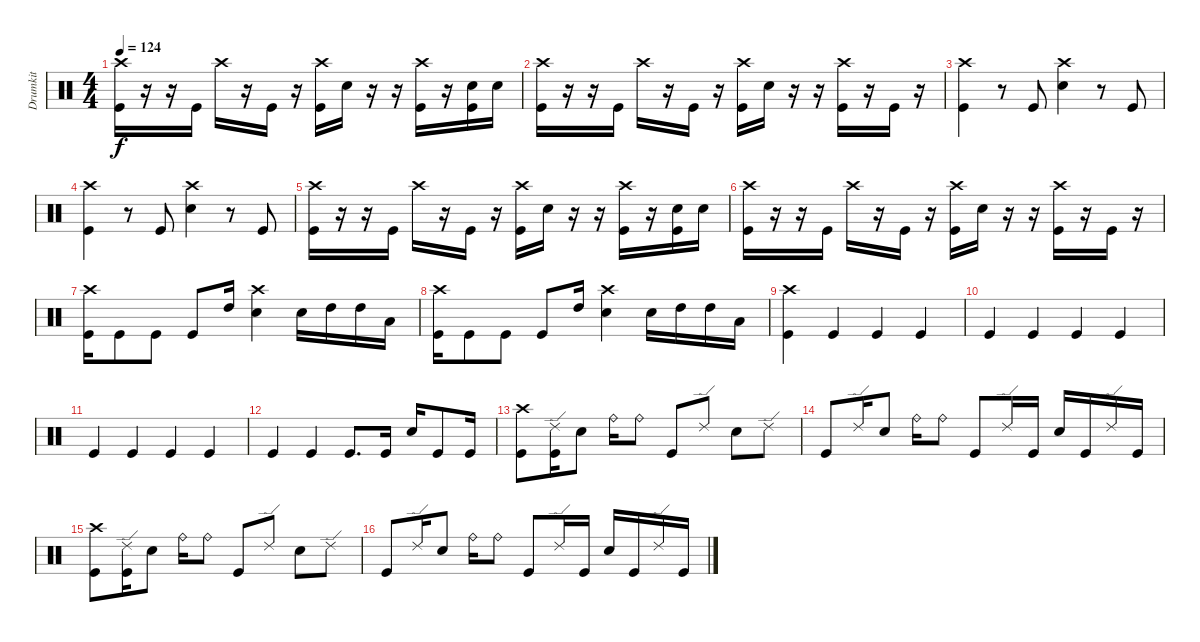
\track ("Drumkit" "Drumkit") {instrument percussion}
\staff {score}
\articulation defaults
\ts (4 4)
\tempo 124
\clef neutral
\ks c
("Kick (hit)" "Crash high (hit)").16{dy f} r.16 r.16 "Kick (hit)".16 "Crash high (hit)".16 r.16 "Kick (hit)".16 r.16 ("Crash high (hit)" "Kick (hit)").16 "Snare (hit) 2".16 r.16 r.16 ("Kick (hit)" "Crash high (hit)").16 r.16 ("Kick (hit)" "Snare (hit) 2").16 "Snare (hit) 2".16 |
("Kick (hit)" "Crash high (hit)").16 r.16 r.16 "Kick (hit)".16 "Crash high (hit)".16 r.16 "Kick (hit)".16 r.16 ("Crash high (hit)" "Kick (hit)").16 "Snare (hit) 2".16 r.16 r.16 ("Kick (hit)" "Crash high (hit)").16 r.16 "Kick (hit)".16 r.16 |
("Kick (hit)" "Crash high (hit)").4 r.8 "Kick (hit)".8 ("Snare (hit) 2" "Crash high (hit)").4 r.8 "Kick (hit)".8 |
("Kick (hit)" "Crash high (hit)").4 r.8 "Kick (hit)".8 ("Snare (hit) 2" "Crash high (hit)").4 r.8 "Kick (hit)".8 |
("Kick (hit)" "Crash high (hit)").16 r.16 r.16 "Kick (hit)".16 "Crash high (hit)".16 r.16 "Kick (hit)".16 r.16 ("Crash high (hit)" "Kick (hit)").16 "Snare (hit) 2".16 r.16 r.16 ("Kick (hit)" "Crash high (hit)").16 r.16 ("Kick (hit)" "Snare (hit) 2").16 "Snare (hit) 2".16 |
("Kick (hit)" "Crash high (hit)").16 r.16 r.16 "Kick (hit)".16 "Crash high (hit)".16 r.16 "Kick (hit)".16 r.16 ("Crash high (hit)" "Kick (hit)").16 "Snare (hit) 2".16 r.16 r.16 ("Kick (hit)" "Crash high (hit)").16 r.16 "Kick (hit)".16 r.16 |
("Kick (hit)" "Crash high (hit)").16 "Kick (hit)".8 "Kick (hit)".8 "Kick (hit)".8 "High Tom (hit)".16 ("Snare (hit) 2" "Crash high (hit)").4 "Snare (hit) 2".16 "High Tom (hit)".16 "High Tom (hit)".16 "Low Floor Tom (hit)".16 |
("Kick (hit)" "Crash high (hit)").16 "Kick (hit)".8 "Kick (hit)".8 "Kick (hit)".8 "High Tom (hit)".16 ("Snare (hit) 2" "Crash high (hit)").4 "Snare (hit) 2".16 "High Tom (hit)".16 "High Tom (hit)".16 "Low Floor Tom (hit)".16 |
("Kick (hit)" "Crash high (hit)").4 "Kick (hit)".4 "Kick (hit)".4 "Kick (hit)".4 |
"Kick (hit)".4 "Kick (hit)".4 "Kick (hit)".4 "Kick (hit)".4 |
"Kick (hit)".4 "Kick (hit)".4 "Kick (hit)".4 "Kick (hit)".4 |
"Kick (hit)".4 "Kick (hit)".4 "Kick (hit)".8{d} "Kick (hit)".16 "Snare (hit) 2".16 "Kick (hit)".8 "Kick (hit)".16 |
("Kick (hit)" "Crash high (hit)").8 ("Ride (edge) 2" "Kick (hit)").16 "Snare (hit) 2".8 "Ride (bell)".16 "Ride (bell)".8 "Kick (hit)".8 "Ride (edge) 2".8 "Snare (hit) 2".8 "Ride (edge) 2".8 |
"Kick (hit)".8 "Ride (edge) 2".16 "Snare (hit) 2".8 "Ride (bell)".16 "Ride (bell)".8 "Kick (hit)".8 "Ride (edge) 2".16 "Kick (hit)".16 "Snare (hit) 2".16 "Kick (hit)".16 "Ride (edge) 2".16 "Kick (hit)".16 |
("Kick (hit)" "Crash high (hit)").8 ("Ride (edge) 2" "Kick (hit)").16 "Snare (hit) 2".8 "Ride (bell)".16 "Ride (bell)".8 "Kick (hit)".8 "Ride (edge) 2".8 "Snare (hit) 2".8 "Ride (edge) 2".8 |
"Kick (hit)".8 "Ride (edge) 2".16 "Snare (hit) 2".8 "Ride (bell)".16 "Ride (bell)".8 "Kick (hit)".8 "Ride (edge) 2".16 "Kick (hit)".16 "Snare (hit) 2".16 "Kick (hit)".16 "Ride (edge) 2".16 "Kick (hit)".16
